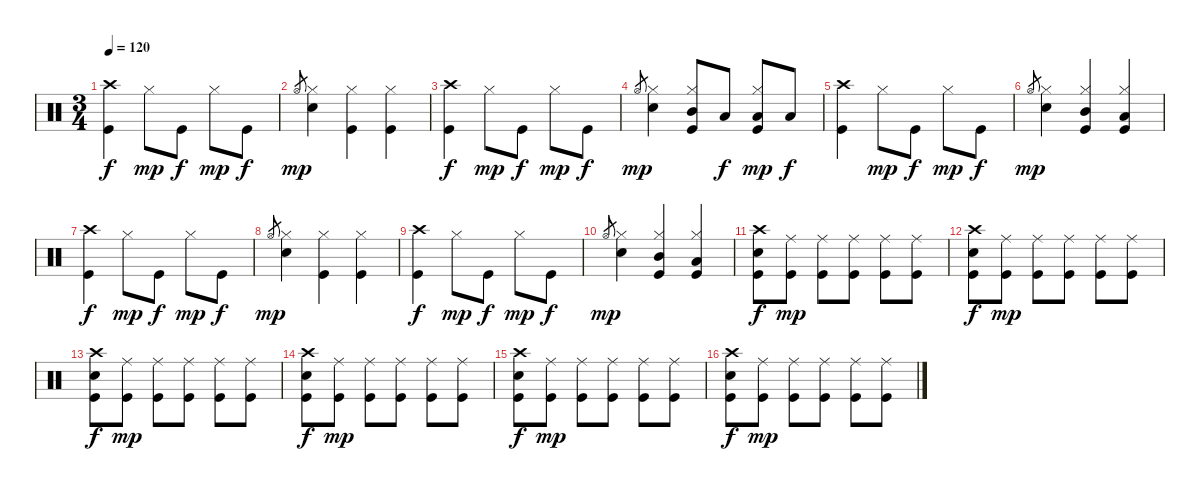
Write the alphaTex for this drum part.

\track "" {instrument percussion}
\staff {score}
\articulation defaults
\ts (3 4)
\tempo 120
\clef neutral
\ks c
("Crash high (hit)" "Kick (hit)").4{dy f} "Hi-Hat (closed)".8{dy mp} "Kick (hit)".8{dy f} "Hi-Hat (closed)".8{dy mp} "Kick (hit)".8{dy f} |
"Hi-Hat (open)".8{gr dy mp} ("Hi-Hat (closed)" "Electric Snare (hit)").4 ("Hi-Hat (closed)" "Kick (hit)").4 ("Hi-Hat (closed)" "Kick (hit)").4 |
("Crash high (hit)" "Kick (hit)").4{dy f} "Hi-Hat (closed)".8{dy mp} "Kick (hit)".8{dy f} "Hi-Hat (closed)".8{dy mp} "Kick (hit)".8{dy f} |
"Hi-Hat (open)".8{gr dy mp} ("Hi-Hat (closed)" "Electric Snare (hit)").4 ("Hi-Hat (closed)" "Mid Tom (hit)" "Kick (hit)").8 "Low Tom (hit)".8{dy f} ("Hi-Hat (closed)" "Low Tom (hit)" "Kick (hit)").8{dy mp} "Low Tom (hit)".8{dy f} |
("Crash high (hit)" "Kick (hit)").4 "Hi-Hat (closed)".8{dy mp} "Kick (hit)".8{dy f} "Hi-Hat (closed)".8{dy mp} "Kick (hit)".8{dy f} |
"Hi-Hat (open)".8{gr dy mp} ("Hi-Hat (closed)" "Electric Snare (hit)").4 ("Hi-Hat (closed)" "Mid Tom (hit)" "Kick (hit)").4 ("Hi-Hat (closed)" "Low Tom (hit)" "Kick (hit)").4 |
("Crash high (hit)" "Kick (hit)").4{dy f} "Hi-Hat (closed)".8{dy mp} "Kick (hit)".8{dy f} "Hi-Hat (closed)".8{dy mp} "Kick (hit)".8{dy f} |
"Hi-Hat (open)".8{gr dy mp} ("Hi-Hat (closed)" "Electric Snare (hit)").4 ("Hi-Hat (closed)" "Kick (hit)").4 ("Hi-Hat (closed)" "Kick (hit)").4 |
("Crash high (hit)" "Kick (hit)").4{dy f} "Hi-Hat (closed)".8{dy mp} "Kick (hit)".8{dy f} "Hi-Hat (closed)".8{dy mp} "Kick (hit)".8{dy f} |
"Hi-Hat (open)".8{gr dy mp} ("Hi-Hat (closed)" "Electric Snare (hit)").4 ("Hi-Hat (closed)" "Mid Tom (hit)" "Kick (hit)").4 ("Hi-Hat (closed)" "Low Tom (hit)" "Kick (hit)").4 |
("Kick (hit)" "Electric Snare (hit)" "Crash high (hit)").8{dy f} ("Kick (hit)" "Ride (middle)").8{dy mp} ("Kick (hit)" "Ride (middle)").8 ("Kick (hit)" "Ride (middle)").8 ("Kick (hit)" "Ride (middle)").8 ("Kick (hit)" "Ride (middle)").8 |
("Kick (hit)" "Electric Snare (hit)" "Crash high (hit)").8{dy f} ("Kick (hit)" "Ride (middle)").8{dy mp} ("Kick (hit)" "Ride (middle)").8 ("Kick (hit)" "Ride (middle)").8 ("Kick (hit)" "Ride (middle)").8 ("Kick (hit)" "Ride (middle)").8 |
("Kick (hit)" "Electric Snare (hit)" "Crash high (hit)").8{dy f} ("Kick (hit)" "Ride (middle)").8{dy mp} ("Kick (hit)" "Ride (middle)").8 ("Kick (hit)" "Ride (middle)").8 ("Kick (hit)" "Ride (middle)").8 ("Kick (hit)" "Ride (middle)").8 |
("Kick (hit)" "Electric Snare (hit)" "Crash high (hit)").8{dy f} ("Kick (hit)" "Ride (middle)").8{dy mp} ("Kick (hit)" "Ride (middle)").8 ("Kick (hit)" "Ride (middle)").8 ("Kick (hit)" "Ride (middle)").8 ("Kick (hit)" "Ride (middle)").8 |
("Kick (hit)" "Electric Snare (hit)" "Crash high (hit)").8{dy f} ("Kick (hit)" "Ride (middle)").8{dy mp} ("Kick (hit)" "Ride (middle)").8 ("Kick (hit)" "Ride (middle)").8 ("Kick (hit)" "Ride (middle)").8 ("Kick (hit)" "Ride (middle)").8 |
("Kick (hit)" "Electric Snare (hit)" "Crash high (hit)").8{dy f} ("Kick (hit)" "Ride (middle)").8{dy mp} ("Kick (hit)" "Ride (middle)").8 ("Kick (hit)" "Ride (middle)").8 ("Kick (hit)" "Ride (middle)").8 ("Kick (hit)" "Ride (middle)").8
